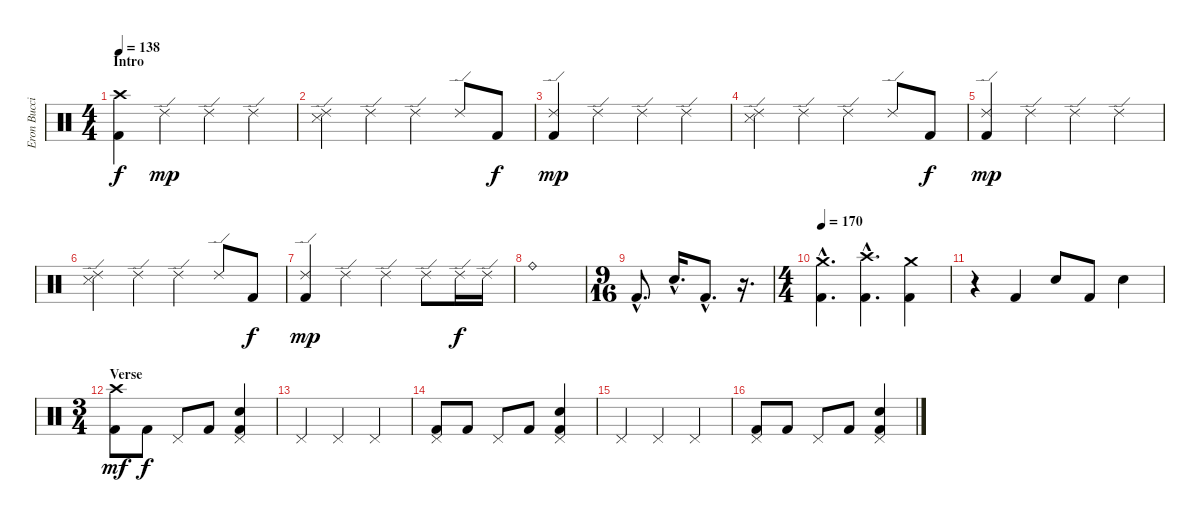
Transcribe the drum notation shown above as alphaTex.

\track ("Eron Bucciarelli (Drums)" "Eron Bucci") {instrument percussion}
\staff {score}
\articulation defaults
\ts (4 4)
\section ("" "Intro")
\tempo 138
\clef neutral
\ks c
("Crash high (hit)" "Kick (hit) 2").4{dy f} "Ride (edge) 2".4{dy mp} "Ride (edge) 2".4 "Ride (edge) 2".4 |
("Ride (edge) 2" "Snare (side stick) 3").4 "Ride (edge) 2".4 "Ride (edge) 2".4 "Ride (edge) 2".8 "Kick (hit) 2".8{dy f} |
("Ride (edge) 2" "Kick (hit) 2").4{dy mp} "Ride (edge) 2".4 "Ride (edge) 2".4 "Ride (edge) 2".4 |
("Ride (edge) 2" "Snare (side stick) 3").4 "Ride (edge) 2".4 "Ride (edge) 2".4 "Ride (edge) 2".8 "Kick (hit) 2".8{dy f} |
("Ride (edge) 2" "Kick (hit) 2").4{dy mp} "Ride (edge) 2".4 "Ride (edge) 2".4 "Ride (edge) 2".4 |
("Ride (edge) 2" "Snare (side stick) 3").4 "Ride (edge) 2".4 "Ride (edge) 2".4 "Ride (edge) 2".8 "Kick (hit) 2".8{dy f} |
("Ride (edge) 2" "Kick (hit) 2").4{dy mp} "Ride (edge) 2".4 "Ride (edge) 2".4 "Ride (edge) 2".8 "Ride (edge) 2".16{dy f} "Ride (edge) 2".16 |
"Ride (bell)".1 |
\ts (9 16)
"Kick (hit) 2"{hac}.8{d} "Snare (hit) 2"{hac}.16{d} "Kick (hit) 2"{hac}.8{d} r.16{d} |
\ts (4 4)
\tempo 170
("Crash medium (hit)"{hac} "Kick (hit) 2"{hac}).4{d} ("Crash high (hit)"{hac} "Kick (hit) 2"{hac}).4{d} ("Crash medium (hit)" "Kick (hit) 2").4 |
r.4 "Kick (hit) 2".4 "Snare (hit) 2".8 "Kick (hit) 2".8 "Snare (hit) 2".4 |
\ts (3 4)
\section ("" "Verse")
("Crash high (hit)" "Kick (hit) 2").8{dy mf} "Kick (hit) 2".8{dy f} "Pedal Hi-Hat (hit)".8 "Kick (hit) 2".8 ("Pedal Hi-Hat (hit)" "Snare (hit) 2" "Kick (hit) 2").4 |
"Pedal Hi-Hat (hit)".4 "Pedal Hi-Hat (hit)".4 "Pedal Hi-Hat (hit)".4 |
("Pedal Hi-Hat (hit)" "Kick (hit) 2").8 "Kick (hit) 2".8 "Pedal Hi-Hat (hit)".8 "Kick (hit) 2".8 ("Pedal Hi-Hat (hit)" "Snare (hit) 2" "Kick (hit) 2").4 |
"Pedal Hi-Hat (hit)".4 "Pedal Hi-Hat (hit)".4 "Pedal Hi-Hat (hit)".4 |
("Pedal Hi-Hat (hit)" "Kick (hit) 2").8 "Kick (hit) 2".8 "Pedal Hi-Hat (hit)".8 "Kick (hit) 2".8 ("Pedal Hi-Hat (hit)" "Snare (hit) 2" "Kick (hit) 2").4
